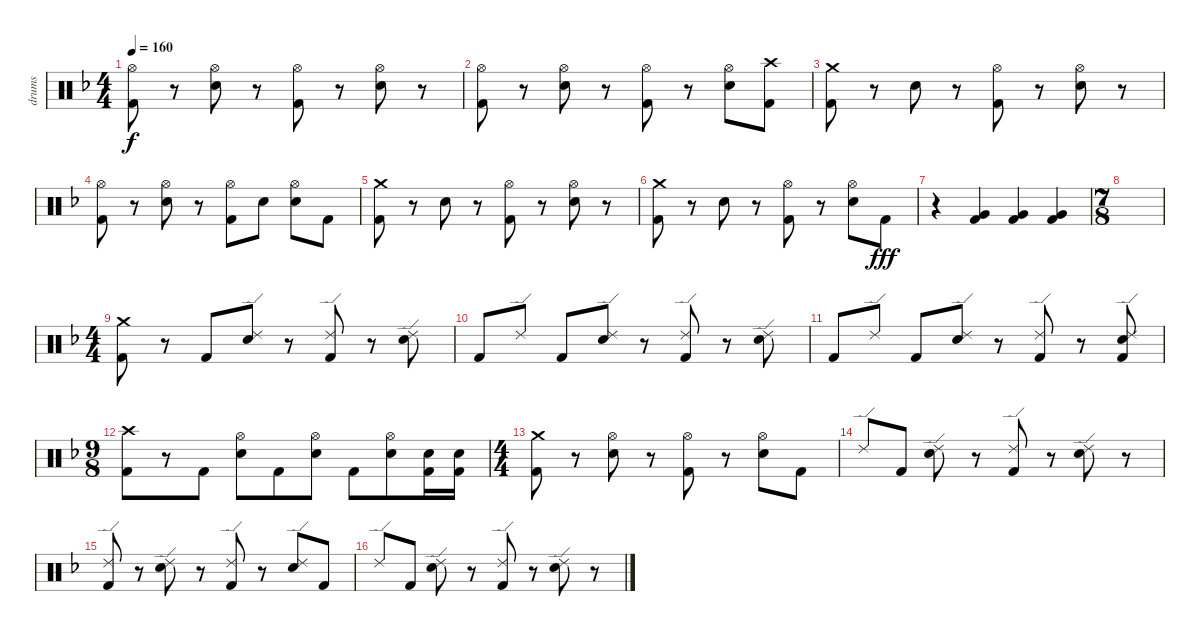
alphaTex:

\track ("drums" "drums") {instrument percussion}
\staff {score}
\articulation defaults
\ts (4 4)
\tempo 160
\clef neutral
\ks f
("Hi-Hat (open)" "Kick (hit) 2").8{dy f} r.8 ("Hi-Hat (open)" "Electric Snare (hit)").8 r.8 ("Hi-Hat (open)" "Kick (hit) 2").8 r.8 ("Hi-Hat (open)" "Electric Snare (hit)").8 r.8 |
("Hi-Hat (open)" "Kick (hit) 2").8 r.8 ("Hi-Hat (open)" "Electric Snare (hit)").8 r.8 ("Hi-Hat (open)" "Kick (hit) 2").8 r.8 ("Hi-Hat (open)" "Electric Snare (hit)").8 ("Crash high (hit)" "Kick (hit) 2").8 |
("Crash medium (hit)" "Kick (hit) 2").8 r.8 "Electric Snare (hit)".8 r.8 ("Hi-Hat (open)" "Kick (hit) 2").8 r.8 ("Hi-Hat (open)" "Electric Snare (hit)").8 r.8 |
("Hi-Hat (open)" "Kick (hit) 2").8 r.8 ("Hi-Hat (open)" "Electric Snare (hit)").8 r.8 ("Hi-Hat (open)" "Kick (hit) 2").8 "Electric Snare (hit)".8 ("Hi-Hat (open)" "Electric Snare (hit)").8 "Kick (hit) 2".8 |
("Crash medium (hit)" "Kick (hit) 2").8 r.8 "Electric Snare (hit)".8 r.8 ("Hi-Hat (open)" "Kick (hit) 2").8 r.8 ("Hi-Hat (open)" "Electric Snare (hit)").8 r.8 |
("Crash medium (hit)" "Kick (hit) 2").8 r.8 "Electric Snare (hit)".8 r.8 ("Hi-Hat (open)" "Kick (hit) 2").8 r.8 ("Hi-Hat (open)" "Electric Snare (hit)").8 "Kick (hit) 2".8{dy fff} |
r.4 ("Very Low Tom (hit)" "Kick (hit) 2").4 ("Very Low Tom (hit)" "Kick (hit) 2").4 ("Very Low Tom (hit)" "Kick (hit) 2").4 |
\ts (7 8)
|
\ts (4 4)
("Crash medium (hit)" "Kick (hit) 2").8 r.8 "Kick (hit) 2".8 ("Ride (edge) 2" "Electric Snare (hit)").8 r.8 ("Ride (edge) 2" "Kick (hit) 2").8 r.8 ("Ride (edge) 2" "Electric Snare (hit)").8 |
"Kick (hit) 2".8 "Ride (edge) 2".8 "Kick (hit) 2".8 ("Ride (edge) 2" "Electric Snare (hit)").8 r.8 ("Ride (edge) 2" "Kick (hit) 2").8 r.8 ("Ride (edge) 2" "Electric Snare (hit)").8 |
"Kick (hit) 2".8 "Ride (edge) 2".8 "Kick (hit) 2".8 ("Ride (edge) 2" "Electric Snare (hit)").8 r.8 ("Ride (edge) 2" "Kick (hit) 2").8 r.8 ("Ride (edge) 2" "Electric Snare (hit)" "Kick (hit) 2").8 |
\ts (9 8)
("Crash high (hit)" "Kick (hit) 2").8 r.8 "Kick (hit) 2".8 ("Hi-Hat (open)" "Electric Snare (hit)").8 "Kick (hit) 2".8 ("Hi-Hat (open)" "Electric Snare (hit)").8 "Kick (hit) 2".8 ("Hi-Hat (open)" "Electric Snare (hit)").8 ("Electric Snare (hit)" "Kick (hit) 2").16 ("Electric Snare (hit)" "Kick (hit) 2").16 |
\ts (4 4)
("Crash medium (hit)" "Kick (hit) 2").8 r.8 ("Hi-Hat (open)" "Electric Snare (hit)").8 r.8 ("Hi-Hat (open)" "Kick (hit) 2").8 r.8 ("Hi-Hat (open)" "Electric Snare (hit)").8 "Kick (hit) 2".8 |
"Ride (edge) 2".8 "Kick (hit) 2".8 ("Ride (edge) 2" "Electric Snare (hit)").8 r.8 ("Ride (edge) 2" "Kick (hit) 2").8 r.8 ("Ride (edge) 2" "Electric Snare (hit)").8 r.8 |
("Ride (edge) 2" "Kick (hit) 2").8 r.8 ("Ride (edge) 2" "Electric Snare (hit)").8 r.8 ("Ride (edge) 2" "Kick (hit) 2").8 r.8 ("Ride (edge) 2" "Electric Snare (hit)").8 "Kick (hit) 2".8 |
"Ride (edge) 2".8 "Kick (hit) 2".8 ("Ride (edge) 2" "Electric Snare (hit)").8 r.8 ("Ride (edge) 2" "Kick (hit) 2").8 r.8 ("Ride (edge) 2" "Electric Snare (hit)").8 r.8
